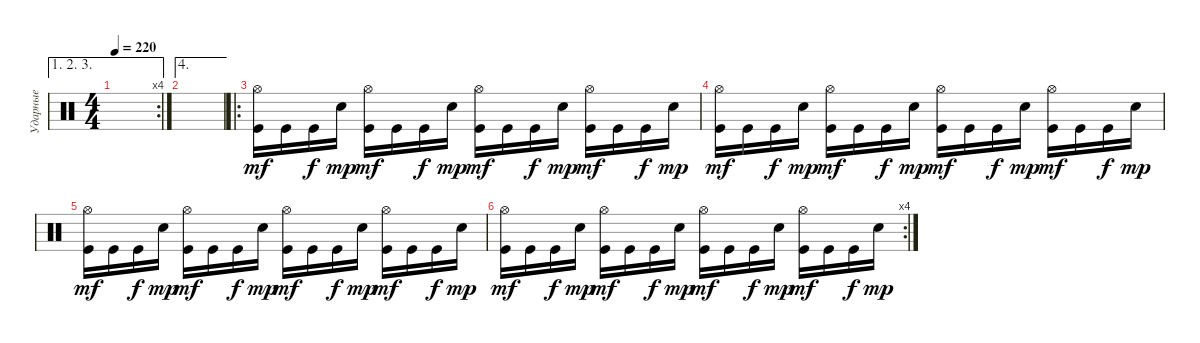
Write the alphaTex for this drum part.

\track ("Ударные" "Ударные") {instrument percussion}
\staff {score}
\articulation defaults
\ae (1 2 3)
\rc 4
\ts (4 4)
\tempo 220
\clef neutral
\ks c
|
\ae 4
|
\ro
("Hi-Hat (open)" "Kick (hit)").16{dy mf} "Kick (hit)".16 "Kick (hit)".16{dy f} "Electric Snare (hit)".16{dy mp} ("Hi-Hat (open)" "Kick (hit)").16{dy mf} "Kick (hit)".16 "Kick (hit)".16{dy f} "Electric Snare (hit)".16{dy mp} ("Hi-Hat (open)" "Kick (hit)").16{dy mf} "Kick (hit)".16 "Kick (hit)".16{dy f} "Electric Snare (hit)".16{dy mp} ("Hi-Hat (open)" "Kick (hit)").16{dy mf} "Kick (hit)".16 "Kick (hit)".16{dy f} "Electric Snare (hit)".16{dy mp} |
("Hi-Hat (open)" "Kick (hit)").16{dy mf} "Kick (hit)".16 "Kick (hit)".16{dy f} "Electric Snare (hit)".16{dy mp} ("Hi-Hat (open)" "Kick (hit)").16{dy mf} "Kick (hit)".16 "Kick (hit)".16{dy f} "Electric Snare (hit)".16{dy mp} ("Hi-Hat (open)" "Kick (hit)").16{dy mf} "Kick (hit)".16 "Kick (hit)".16{dy f} "Electric Snare (hit)".16{dy mp} ("Hi-Hat (open)" "Kick (hit)").16{dy mf} "Kick (hit)".16 "Kick (hit)".16{dy f} "Electric Snare (hit)".16{dy mp} |
("Hi-Hat (open)" "Kick (hit)").16{dy mf} "Kick (hit)".16 "Kick (hit)".16{dy f} "Electric Snare (hit)".16{dy mp} ("Hi-Hat (open)" "Kick (hit)").16{dy mf} "Kick (hit)".16 "Kick (hit)".16{dy f} "Electric Snare (hit)".16{dy mp} ("Hi-Hat (open)" "Kick (hit)").16{dy mf} "Kick (hit)".16 "Kick (hit)".16{dy f} "Electric Snare (hit)".16{dy mp} ("Hi-Hat (open)" "Kick (hit)").16{dy mf} "Kick (hit)".16 "Kick (hit)".16{dy f} "Electric Snare (hit)".16{dy mp} |
\rc 4
("Hi-Hat (open)" "Kick (hit)").16{dy mf} "Kick (hit)".16 "Kick (hit)".16{dy f} "Electric Snare (hit)".16{dy mp} ("Hi-Hat (open)" "Kick (hit)").16{dy mf} "Kick (hit)".16 "Kick (hit)".16{dy f} "Electric Snare (hit)".16{dy mp} ("Hi-Hat (open)" "Kick (hit)").16{dy mf} "Kick (hit)".16 "Kick (hit)".16{dy f} "Electric Snare (hit)".16{dy mp} ("Hi-Hat (open)" "Kick (hit)").16{dy mf} "Kick (hit)".16 "Kick (hit)".16{dy f} "Electric Snare (hit)".16{dy mp}
